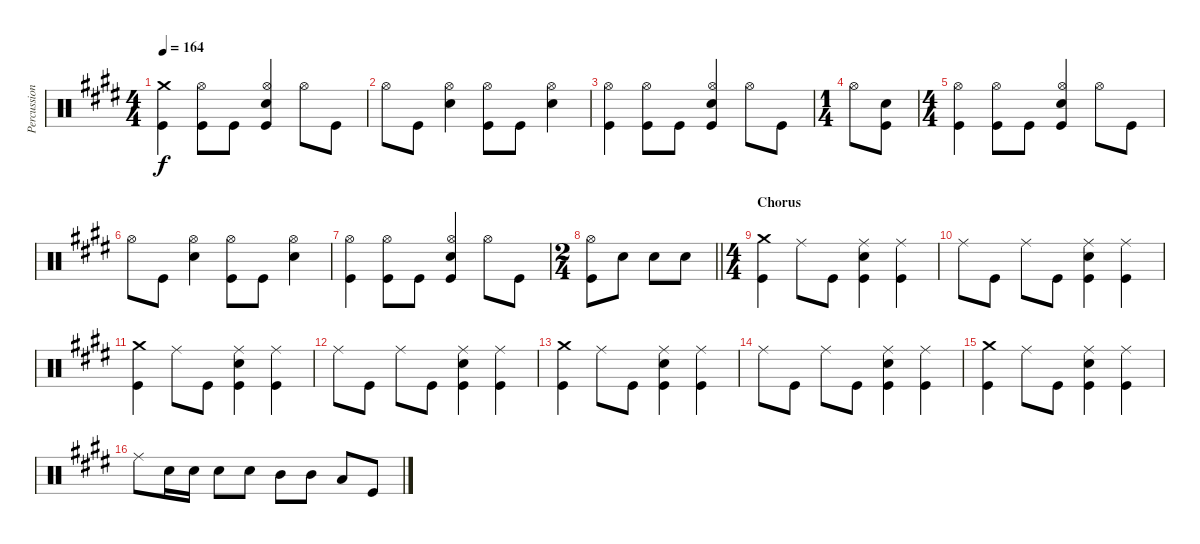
\track ("Percussion" "Percussion") {instrument percussion}
\staff {score}
\articulation defaults
\ts (4 4)
\tempo 164
\clef neutral
\ks e
("Crash medium (hit)" "Kick (hit)").4{dy f} ("Hi-Hat (open)" "Kick (hit)").8 "Kick (hit)".8 ("Hi-Hat (open)" "Electric Snare (hit)" "Kick (hit)").4 "Hi-Hat (open)".8 "Kick (hit)".8 |
"Hi-Hat (open)".8 "Kick (hit)".8 ("Hi-Hat (open)" "Electric Snare (hit)").4 ("Hi-Hat (open)" "Kick (hit)").8 "Kick (hit)".8 ("Hi-Hat (open)" "Electric Snare (hit)").4 |
("Hi-Hat (open)" "Kick (hit)").4 ("Hi-Hat (open)" "Kick (hit)").8 "Kick (hit)".8 ("Hi-Hat (open)" "Electric Snare (hit)" "Kick (hit)").4 "Hi-Hat (open)".8 "Kick (hit)".8 |
\ts (1 4)
"Hi-Hat (open)".8 ("Electric Snare (hit)" "Kick (hit)").8 |
\ts (4 4)
("Hi-Hat (open)" "Kick (hit)").4 ("Hi-Hat (open)" "Kick (hit)").8 "Kick (hit)".8 ("Hi-Hat (open)" "Electric Snare (hit)" "Kick (hit)").4 "Hi-Hat (open)".8 "Kick (hit)".8 |
"Hi-Hat (open)".8 "Kick (hit)".8 ("Hi-Hat (open)" "Electric Snare (hit)").4 ("Hi-Hat (open)" "Kick (hit)").8 "Kick (hit)".8 ("Hi-Hat (open)" "Electric Snare (hit)").4 |
("Hi-Hat (open)" "Kick (hit)").4 ("Hi-Hat (open)" "Kick (hit)").8 "Kick (hit)".8 ("Hi-Hat (open)" "Electric Snare (hit)" "Kick (hit)").4 "Hi-Hat (open)".8 "Kick (hit)".8 |
\ts (2 4)
\barLineRight lightlight
("Hi-Hat (open)" "Kick (hit)").8 "Electric Snare (hit)".8 "Electric Snare (hit)".8 "Electric Snare (hit)".8 |
\ts (4 4)
\section ("" "Chorus")
("Crash medium (hit)" "Kick (hit)").4 "Ride (middle)".8 "Kick (hit)".8 ("Ride (middle)" "Electric Snare (hit)" "Kick (hit)").4 ("Ride (middle)" "Kick (hit)").4 |
"Ride (middle)".8 "Kick (hit)".8 "Ride (middle)".8 "Kick (hit)".8 ("Ride (middle)" "Electric Snare (hit)" "Kick (hit)").4 ("Ride (middle)" "Kick (hit)").4 |
("Crash medium (hit)" "Kick (hit)").4 "Ride (middle)".8 "Kick (hit)".8 ("Ride (middle)" "Electric Snare (hit)" "Kick (hit)").4 ("Ride (middle)" "Kick (hit)").4 |
"Ride (middle)".8 "Kick (hit)".8 "Ride (middle)".8 "Kick (hit)".8 ("Ride (middle)" "Electric Snare (hit)" "Kick (hit)").4 ("Ride (middle)" "Kick (hit)").4 |
("Crash medium (hit)" "Kick (hit)").4 "Ride (middle)".8 "Kick (hit)".8 ("Ride (middle)" "Electric Snare (hit)" "Kick (hit)").4 ("Ride (middle)" "Kick (hit)").4 |
"Ride (middle)".8 "Kick (hit)".8 "Ride (middle)".8 "Kick (hit)".8 ("Ride (middle)" "Electric Snare (hit)" "Kick (hit)").4 ("Ride (middle)" "Kick (hit)").4 |
("Crash medium (hit)" "Kick (hit)").4 "Ride (middle)".8 "Kick (hit)".8 ("Ride (middle)" "Electric Snare (hit)" "Kick (hit)").4 ("Ride (middle)" "Kick (hit)").4 |
"Ride (middle)".8 "Electric Snare (hit)".16 "Electric Snare (hit)".16 "Electric Snare (hit)".8 "Electric Snare (hit)".8 "Mid Tom (hit)".8 "Mid Tom (hit)".8 "Low Tom (hit)".8 "Kick (hit)".8
